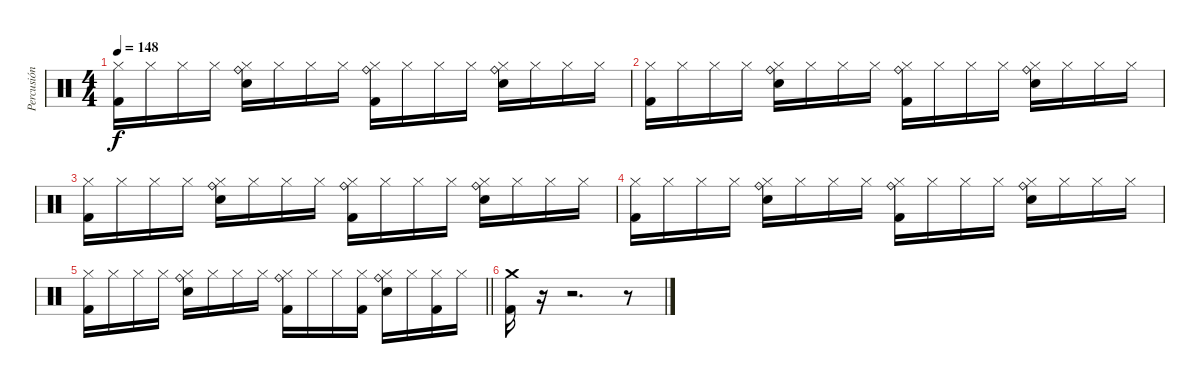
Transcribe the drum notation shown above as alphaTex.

\track ("Percusión" "Percusión") {instrument percussion}
\staff {score}
\articulation defaults
\ts (4 4)
\tempo 148
\clef neutral
\ks c
("Hi-Hat (closed)" "Kick (hit) 2").16{dy f} "Hi-Hat (closed)".16 "Hi-Hat (closed)".16 "Hi-Hat (closed)".16 ("Hi-Hat (closed)" "Ride (bell)" "Snare (hit) 2").16 "Hi-Hat (closed)".16 "Hi-Hat (closed)".16 "Hi-Hat (closed)".16 ("Hi-Hat (closed)" "Ride (bell)" "Kick (hit) 2").16 "Hi-Hat (closed)".16 "Hi-Hat (closed)".16 "Hi-Hat (closed)".16 ("Hi-Hat (closed)" "Ride (bell)" "Snare (hit) 2").16 "Hi-Hat (closed)".16 "Hi-Hat (closed)".16 "Hi-Hat (closed)".16 |
("Hi-Hat (closed)" "Kick (hit) 2").16 "Hi-Hat (closed)".16 "Hi-Hat (closed)".16 "Hi-Hat (closed)".16 ("Hi-Hat (closed)" "Ride (bell)" "Snare (hit) 2").16 "Hi-Hat (closed)".16 "Hi-Hat (closed)".16 "Hi-Hat (closed)".16 ("Hi-Hat (closed)" "Ride (bell)" "Kick (hit) 2").16 "Hi-Hat (closed)".16 "Hi-Hat (closed)".16 "Hi-Hat (closed)".16 ("Hi-Hat (closed)" "Ride (bell)" "Snare (hit) 2").16 "Hi-Hat (closed)".16 "Hi-Hat (closed)".16 "Hi-Hat (closed)".16 |
("Hi-Hat (closed)" "Kick (hit) 2").16 "Hi-Hat (closed)".16 "Hi-Hat (closed)".16 "Hi-Hat (closed)".16 ("Hi-Hat (closed)" "Ride (bell)" "Snare (hit) 2").16 "Hi-Hat (closed)".16 "Hi-Hat (closed)".16 "Hi-Hat (closed)".16 ("Hi-Hat (closed)" "Ride (bell)" "Kick (hit) 2").16 "Hi-Hat (closed)".16 "Hi-Hat (closed)".16 "Hi-Hat (closed)".16 ("Hi-Hat (closed)" "Ride (bell)" "Snare (hit) 2").16 "Hi-Hat (closed)".16 "Hi-Hat (closed)".16 "Hi-Hat (closed)".16 |
("Hi-Hat (closed)" "Kick (hit) 2").16 "Hi-Hat (closed)".16 "Hi-Hat (closed)".16 "Hi-Hat (closed)".16 ("Hi-Hat (closed)" "Ride (bell)" "Snare (hit) 2").16 "Hi-Hat (closed)".16 "Hi-Hat (closed)".16 "Hi-Hat (closed)".16 ("Hi-Hat (closed)" "Ride (bell)" "Kick (hit) 2").16 "Hi-Hat (closed)".16 "Hi-Hat (closed)".16 "Hi-Hat (closed)".16 ("Hi-Hat (closed)" "Ride (bell)" "Snare (hit) 2").16 "Hi-Hat (closed)".16 "Hi-Hat (closed)".16 "Hi-Hat (closed)".16 |
\barLineRight lightlight
("Hi-Hat (closed)" "Kick (hit) 2").16 "Hi-Hat (closed)".16 "Hi-Hat (closed)".16 "Hi-Hat (closed)".16 ("Hi-Hat (closed)" "Ride (bell)" "Snare (hit) 2").16 "Hi-Hat (closed)".16 "Hi-Hat (closed)".16 "Hi-Hat (closed)".16 ("Hi-Hat (closed)" "Ride (bell)" "Kick (hit) 2").16 "Hi-Hat (closed)".16 "Hi-Hat (closed)".16 ("Hi-Hat (closed)" "Kick (hit) 2").16 ("Hi-Hat (closed)" "Ride (bell)" "Snare (hit) 2").16 "Hi-Hat (closed)".16 ("Hi-Hat (closed)" "Kick (hit) 2").16 "Hi-Hat (closed)".16 |
("Crash medium (hit)" "Kick (hit) 2").16 r.16 r.2{d} r.8
